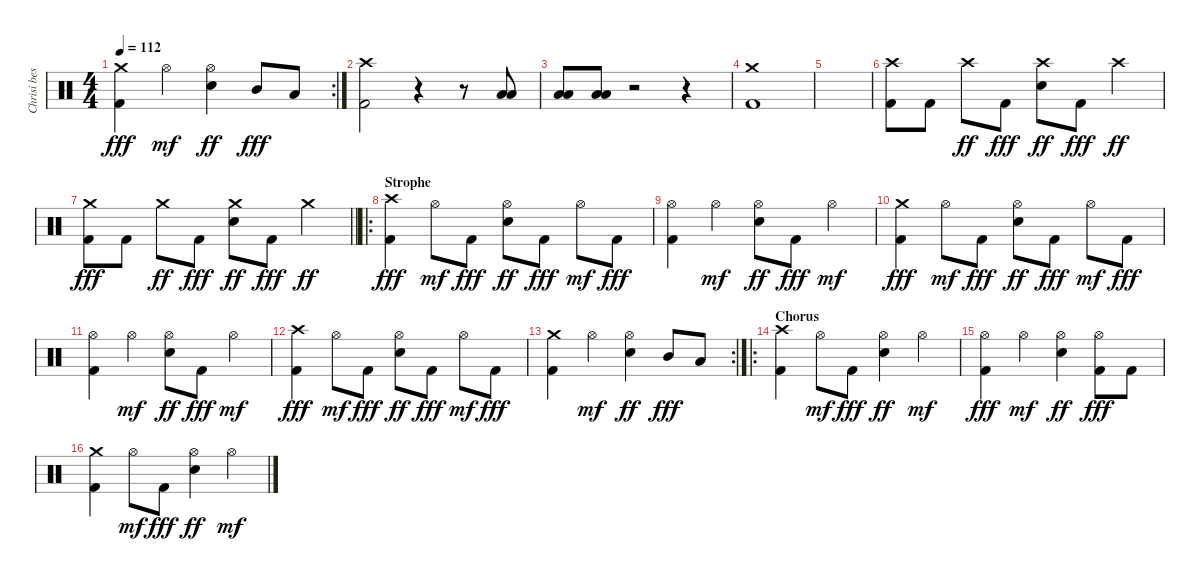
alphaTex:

\track ("Chrisi bestimmt" "Chrisi bes") {instrument percussion}
\staff {score}
\articulation defaults
\rc 2
\ts (4 4)
\tempo 112
\clef neutral
\ks c
("Crash medium (hit)" "Kick (hit) 2").4{dy fff} "Hi-Hat (open)".4{dy mf} ("Hi-Hat (open)" "Electric Snare (hit)").4{dy ff} "Mid Tom (hit)".8{dy fff} "Low Floor Tom (hit)".8 |
("Crash high (hit)" "Kick (hit) 2").2 r.4 r.8 ("Low Floor Tom (hit)" "Low Floor Tom (hit)").8 |
("Low Floor Tom (hit)" "Low Floor Tom (hit)").8 ("Low Floor Tom (hit)" "Low Floor Tom (hit)").8 r.2 r.4 |
("Crash medium (hit)" "Kick (hit) 2").1 |
|
("Crash high (hit)" "Kick (hit) 2").8 "Kick (hit) 2".8 "Crash high (hit)".8{dy ff} "Kick (hit) 2".8{dy fff} ("Crash high (hit)" "Electric Snare (hit)").8{dy ff} "Kick (hit) 2".8{dy fff} "Crash high (hit)".4{dy ff} |
\barLineRight lightlight
("Crash medium (hit)" "Kick (hit) 2").8{dy fff} "Kick (hit) 2".8 "Crash medium (hit)".8{dy ff} "Kick (hit) 2".8{dy fff} ("Crash medium (hit)" "Electric Snare (hit)").8{dy ff} "Kick (hit) 2".8{dy fff} "Crash medium (hit)".4{dy ff} |
\ro
\section ("" "Strophe")
("Crash high (hit)" "Kick (hit) 2").4{dy fff} "Hi-Hat (open)".8{dy mf} "Kick (hit) 2".8{dy fff} ("Hi-Hat (open)" "Electric Snare (hit)").8{dy ff} "Kick (hit) 2".8{dy fff} "Hi-Hat (open)".8{dy mf} "Kick (hit) 2".8{dy fff} |
("Hi-Hat (open)" "Kick (hit) 2").4 "Hi-Hat (open)".4{dy mf} ("Hi-Hat (open)" "Electric Snare (hit)").8{dy ff} "Kick (hit) 2".8{dy fff} "Hi-Hat (open)".4{dy mf} |
("Crash medium (hit)" "Kick (hit) 2").4{dy fff} "Hi-Hat (open)".8{dy mf} "Kick (hit) 2".8{dy fff} ("Hi-Hat (open)" "Electric Snare (hit)").8{dy ff} "Kick (hit) 2".8{dy fff} "Hi-Hat (open)".8{dy mf} "Kick (hit) 2".8{dy fff} |
("Hi-Hat (open)" "Kick (hit) 2").4 "Hi-Hat (open)".4{dy mf} ("Hi-Hat (open)" "Electric Snare (hit)").8{dy ff} "Kick (hit) 2".8{dy fff} "Hi-Hat (open)".4{dy mf} |
("Crash high (hit)" "Kick (hit) 2").4{dy fff} "Hi-Hat (open)".8{dy mf} "Kick (hit) 2".8{dy fff} ("Hi-Hat (open)" "Electric Snare (hit)").8{dy ff} "Kick (hit) 2".8{dy fff} "Hi-Hat (open)".8{dy mf} "Kick (hit) 2".8{dy fff} |
\rc 2
("Crash medium (hit)" "Kick (hit) 2").4 "Hi-Hat (open)".4{dy mf} ("Hi-Hat (open)" "Electric Snare (hit)").4{dy ff} "Mid Tom (hit)".8{dy fff} "Low Floor Tom (hit)".8 |
\ro
\section ("" "Chorus")
("Crash high (hit)" "Kick (hit) 2").4 "Hi-Hat (open)".8{dy mf} "Kick (hit) 2".8{dy fff} ("Hi-Hat (open)" "Electric Snare (hit)").4{dy ff} "Hi-Hat (open)".4{dy mf} |
("Hi-Hat (open)" "Kick (hit) 2").4{dy fff} "Hi-Hat (open)".4{dy mf} ("Hi-Hat (open)" "Electric Snare (hit)").4{dy ff} ("Hi-Hat (open)" "Kick (hit) 2").8{dy fff} "Kick (hit) 2".8 |
("Crash medium (hit)" "Kick (hit) 2").4 "Hi-Hat (open)".8{dy mf} "Kick (hit) 2".8{dy fff} ("Hi-Hat (open)" "Electric Snare (hit)").4{dy ff} "Hi-Hat (open)".4{dy mf}
